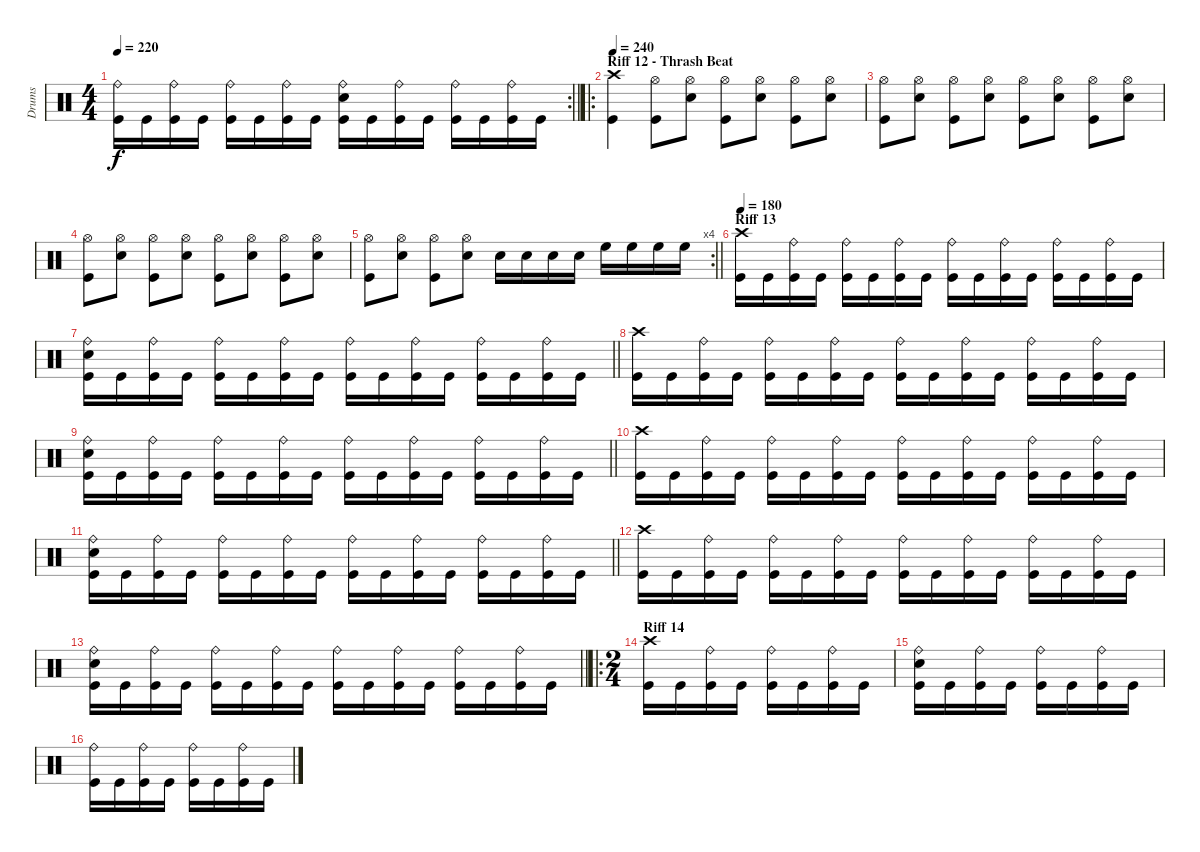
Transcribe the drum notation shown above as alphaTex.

\track ("Drums" "Drums") {instrument percussion}
\staff {score}
\articulation defaults
\rc 2
\ts (4 4)
\tempo 220
\clef neutral
\barLineRight lightlight
\ks c
("Ride (bell)" "Kick (hit)").16{dy f} "Kick (hit)".16 ("Ride (bell)" "Kick (hit)").16 "Kick (hit)".16 ("Ride (bell)" "Kick (hit)").16 "Kick (hit)".16 ("Ride (bell)" "Kick (hit)").16 "Kick (hit)".16 ("Ride (bell)" "Electric Snare (hit)" "Kick (hit)").16 "Kick (hit)".16 ("Ride (bell)" "Kick (hit)").16 "Kick (hit)".16 ("Ride (bell)" "Kick (hit)").16 "Kick (hit)".16 ("Ride (bell)" "Kick (hit)").16 "Kick (hit)".16 |
\ro
\section ("" "Riff 12 - Thrash Beat ")
\tempo 240
("Crash high (hit)" "Kick (hit)").4 ("Hi-Hat (open)" "Kick (hit)").8 ("Hi-Hat (open)" "Electric Snare (hit)").8 ("Hi-Hat (open)" "Kick (hit)").8 ("Hi-Hat (open)" "Electric Snare (hit)").8 ("Hi-Hat (open)" "Kick (hit)").8 ("Hi-Hat (open)" "Electric Snare (hit)").8 |
("Hi-Hat (open)" "Kick (hit)").8 ("Hi-Hat (open)" "Electric Snare (hit)").8 ("Hi-Hat (open)" "Kick (hit)").8 ("Hi-Hat (open)" "Electric Snare (hit)").8 ("Hi-Hat (open)" "Kick (hit)").8 ("Hi-Hat (open)" "Electric Snare (hit)").8 ("Hi-Hat (open)" "Kick (hit)").8 ("Hi-Hat (open)" "Electric Snare (hit)").8 |
("Hi-Hat (open)" "Kick (hit)").8 ("Hi-Hat (open)" "Electric Snare (hit)").8 ("Hi-Hat (open)" "Kick (hit)").8 ("Hi-Hat (open)" "Electric Snare (hit)").8 ("Hi-Hat (open)" "Kick (hit)").8 ("Hi-Hat (open)" "Electric Snare (hit)").8 ("Hi-Hat (open)" "Kick (hit)").8 ("Hi-Hat (open)" "Electric Snare (hit)").8 |
\rc 4
\barLineRight lightlight
("Hi-Hat (open)" "Kick (hit)").8 ("Hi-Hat (open)" "Electric Snare (hit)").8 ("Hi-Hat (open)" "Kick (hit)").8 ("Hi-Hat (open)" "Electric Snare (hit)").8 "Electric Snare (hit)".16 "Electric Snare (hit)".16 "Electric Snare (hit)".16 "Electric Snare (hit)".16 "High Floor Tom (hit)".16 "High Floor Tom (hit)".16 "High Floor Tom (hit)".16 "High Floor Tom (hit)".16 |
\section ("" "Riff 13")
\tempo 200
\tempo 180
("Crash high (hit)" "Kick (hit)").16 "Kick (hit)".16 ("Ride (bell)" "Kick (hit)").16 "Kick (hit)".16 ("Ride (bell)" "Kick (hit)").16 "Kick (hit)".16 ("Ride (bell)" "Kick (hit)").16 "Kick (hit)".16 ("Ride (bell)" "Kick (hit)").16 "Kick (hit)".16 ("Ride (bell)" "Kick (hit)").16 "Kick (hit)".16 ("Ride (bell)" "Kick (hit)").16 "Kick (hit)".16 ("Ride (bell)" "Kick (hit)").16 "Kick (hit)".16 |
\barLineRight lightlight
("Ride (bell)" "Electric Snare (hit)" "Kick (hit)").16 "Kick (hit)".16 ("Ride (bell)" "Kick (hit)").16 "Kick (hit)".16 ("Ride (bell)" "Kick (hit)").16 "Kick (hit)".16 ("Ride (bell)" "Kick (hit)").16 "Kick (hit)".16 ("Ride (bell)" "Kick (hit)").16 "Kick (hit)".16 ("Ride (bell)" "Kick (hit)").16 "Kick (hit)".16 ("Ride (bell)" "Kick (hit)").16 "Kick (hit)".16 ("Ride (bell)" "Kick (hit)").16 "Kick (hit)".16 |
("Crash high (hit)" "Kick (hit)").16 "Kick (hit)".16 ("Ride (bell)" "Kick (hit)").16 "Kick (hit)".16 ("Ride (bell)" "Kick (hit)").16 "Kick (hit)".16 ("Ride (bell)" "Kick (hit)").16 "Kick (hit)".16 ("Ride (bell)" "Kick (hit)").16 "Kick (hit)".16 ("Ride (bell)" "Kick (hit)").16 "Kick (hit)".16 ("Ride (bell)" "Kick (hit)").16 "Kick (hit)".16 ("Ride (bell)" "Kick (hit)").16 "Kick (hit)".16 |
\barLineRight lightlight
("Ride (bell)" "Electric Snare (hit)" "Kick (hit)").16 "Kick (hit)".16 ("Ride (bell)" "Kick (hit)").16 "Kick (hit)".16 ("Ride (bell)" "Kick (hit)").16 "Kick (hit)".16 ("Ride (bell)" "Kick (hit)").16 "Kick (hit)".16 ("Ride (bell)" "Kick (hit)").16 "Kick (hit)".16 ("Ride (bell)" "Kick (hit)").16 "Kick (hit)".16 ("Ride (bell)" "Kick (hit)").16 "Kick (hit)".16 ("Ride (bell)" "Kick (hit)").16 "Kick (hit)".16 |
("Crash high (hit)" "Kick (hit)").16 "Kick (hit)".16 ("Ride (bell)" "Kick (hit)").16 "Kick (hit)".16 ("Ride (bell)" "Kick (hit)").16 "Kick (hit)".16 ("Ride (bell)" "Kick (hit)").16 "Kick (hit)".16 ("Ride (bell)" "Kick (hit)").16 "Kick (hit)".16 ("Ride (bell)" "Kick (hit)").16 "Kick (hit)".16 ("Ride (bell)" "Kick (hit)").16 "Kick (hit)".16 ("Ride (bell)" "Kick (hit)").16 "Kick (hit)".16 |
\barLineRight lightlight
("Ride (bell)" "Electric Snare (hit)" "Kick (hit)").16 "Kick (hit)".16 ("Ride (bell)" "Kick (hit)").16 "Kick (hit)".16 ("Ride (bell)" "Kick (hit)").16 "Kick (hit)".16 ("Ride (bell)" "Kick (hit)").16 "Kick (hit)".16 ("Ride (bell)" "Kick (hit)").16 "Kick (hit)".16 ("Ride (bell)" "Kick (hit)").16 "Kick (hit)".16 ("Ride (bell)" "Kick (hit)").16 "Kick (hit)".16 ("Ride (bell)" "Kick (hit)").16 "Kick (hit)".16 |
("Crash high (hit)" "Kick (hit)").16 "Kick (hit)".16 ("Ride (bell)" "Kick (hit)").16 "Kick (hit)".16 ("Ride (bell)" "Kick (hit)").16 "Kick (hit)".16 ("Ride (bell)" "Kick (hit)").16 "Kick (hit)".16 ("Ride (bell)" "Kick (hit)").16 "Kick (hit)".16 ("Ride (bell)" "Kick (hit)").16 "Kick (hit)".16 ("Ride (bell)" "Kick (hit)").16 "Kick (hit)".16 ("Ride (bell)" "Kick (hit)").16 "Kick (hit)".16 |
\barLineRight lightlight
("Ride (bell)" "Electric Snare (hit)" "Kick (hit)").16 "Kick (hit)".16 ("Ride (bell)" "Kick (hit)").16 "Kick (hit)".16 ("Ride (bell)" "Kick (hit)").16 "Kick (hit)".16 ("Ride (bell)" "Kick (hit)").16 "Kick (hit)".16 ("Ride (bell)" "Kick (hit)").16 "Kick (hit)".16 ("Ride (bell)" "Kick (hit)").16 "Kick (hit)".16 ("Ride (bell)" "Kick (hit)").16 "Kick (hit)".16 ("Ride (bell)" "Kick (hit)").16 "Kick (hit)".16 |
\ro
\ts (2 4)
\section ("" "Riff 14")
("Crash high (hit)" "Kick (hit)").16 "Kick (hit)".16 ("Ride (bell)" "Kick (hit)").16 "Kick (hit)".16 ("Ride (bell)" "Kick (hit)").16 "Kick (hit)".16 ("Ride (bell)" "Kick (hit)").16 "Kick (hit)".16 |
("Ride (bell)" "Electric Snare (hit)" "Kick (hit)").16 "Kick (hit)".16 ("Ride (bell)" "Kick (hit)").16 "Kick (hit)".16 ("Ride (bell)" "Kick (hit)").16 "Kick (hit)".16 ("Ride (bell)" "Kick (hit)").16 "Kick (hit)".16 |
("Ride (bell)" "Kick (hit)").16 "Kick (hit)".16 ("Ride (bell)" "Kick (hit)").16 "Kick (hit)".16 ("Ride (bell)" "Kick (hit)").16 "Kick (hit)".16 ("Ride (bell)" "Kick (hit)").16 "Kick (hit)".16
